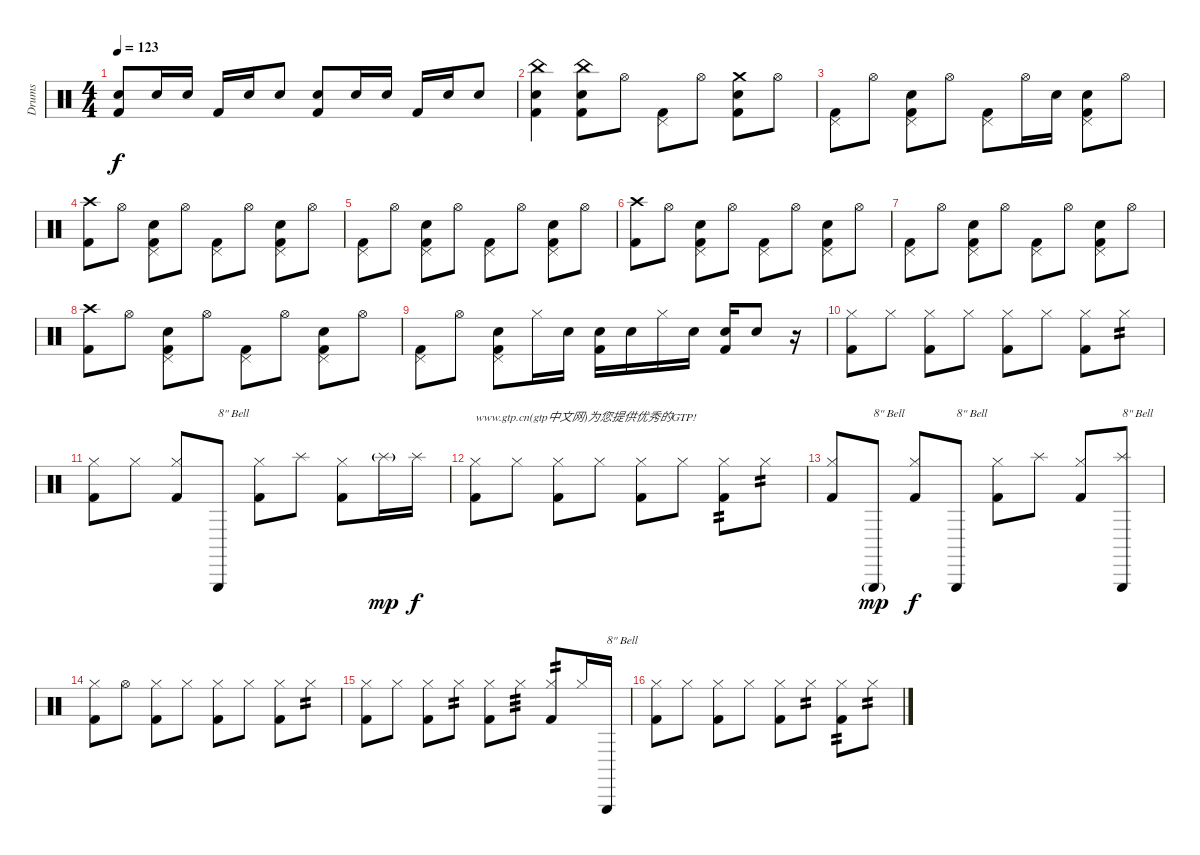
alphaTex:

\track ("Drums" "Drums") {instrument percussion}
\staff {score}
\articulation defaults
\ts (4 4)
\tempo 123
\clef neutral
\ks c
("Snare (hit) 2" "Kick (hit) 2").8{dy f} "Snare (hit) 2".16 "Snare (hit) 2".16 "Kick (hit) 2".16 "Snare (hit) 2".16 "Snare (hit) 2".8 ("Snare (hit) 2" "Kick (hit) 2").8 "Snare (hit) 2".16 "Snare (hit) 2".16 "Kick (hit) 2".16 "Snare (hit) 2".16 "Snare (hit) 2".8 |
("China (hit)" "Snare (hit) 2" "Kick (hit) 2").4 ("China (hit)" "Snare (hit) 2" "Kick (hit) 2").8 "Hi-Hat (open)".8 ("Pedal Hi-Hat (hit)" "Kick (hit) 2").8 "Hi-Hat (open)".8 ("Crash medium (hit)" "Snare (hit) 2" "Kick (hit) 2").8 "Hi-Hat (open)".8 |
("Pedal Hi-Hat (hit)" "Kick (hit) 2").8 "Hi-Hat (open)".8 ("Pedal Hi-Hat (hit)" "Snare (hit) 2" "Kick (hit) 2").8 "Hi-Hat (open)".8 ("Pedal Hi-Hat (hit)" "Kick (hit) 2").8 "Hi-Hat (open)".16 "Snare (hit) 2".16 ("Pedal Hi-Hat (hit)" "Snare (hit) 2" "Kick (hit) 2").8 "Hi-Hat (open)".8 |
("Crash high (hit)" "Kick (hit) 2").8 "Hi-Hat (open)".8 ("Pedal Hi-Hat (hit)" "Snare (hit) 2" "Kick (hit) 2").8 "Hi-Hat (open)".8 ("Pedal Hi-Hat (hit)" "Kick (hit) 2").8 "Hi-Hat (open)".8 ("Pedal Hi-Hat (hit)" "Snare (hit) 2" "Kick (hit) 2").8 "Hi-Hat (open)".8 |
("Pedal Hi-Hat (hit)" "Kick (hit) 2").8 "Hi-Hat (open)".8 ("Pedal Hi-Hat (hit)" "Snare (hit) 2" "Kick (hit) 2").8 "Hi-Hat (open)".8 ("Pedal Hi-Hat (hit)" "Kick (hit) 2").8 "Hi-Hat (open)".8 ("Pedal Hi-Hat (hit)" "Snare (hit) 2" "Kick (hit) 2").8 "Hi-Hat (open)".8 |
("Crash high (hit)" "Kick (hit) 2").8 "Hi-Hat (open)".8 ("Pedal Hi-Hat (hit)" "Snare (hit) 2" "Kick (hit) 2").8 "Hi-Hat (open)".8 ("Pedal Hi-Hat (hit)" "Kick (hit) 2").8 "Hi-Hat (open)".8 ("Pedal Hi-Hat (hit)" "Snare (hit) 2" "Kick (hit) 2").8 "Hi-Hat (open)".8 |
("Pedal Hi-Hat (hit)" "Kick (hit) 2").8 "Hi-Hat (open)".8 ("Pedal Hi-Hat (hit)" "Snare (hit) 2" "Kick (hit) 2").8 "Hi-Hat (open)".8 ("Pedal Hi-Hat (hit)" "Kick (hit) 2").8 "Hi-Hat (open)".8 ("Pedal Hi-Hat (hit)" "Snare (hit) 2" "Kick (hit) 2").8 "Hi-Hat (open)".8 |
("Crash high (hit)" "Kick (hit) 2").8 "Hi-Hat (open)".8 ("Pedal Hi-Hat (hit)" "Snare (hit) 2" "Kick (hit) 2").8 "Hi-Hat (open)".8 ("Pedal Hi-Hat (hit)" "Kick (hit) 2").8 "Hi-Hat (open)".8 ("Pedal Hi-Hat (hit)" "Snare (hit) 2" "Kick (hit) 2").8 "Hi-Hat (open)".8 |
("Pedal Hi-Hat (hit)" "Kick (hit) 2").8 "Hi-Hat (open)".8 ("Pedal Hi-Hat (hit)" "Snare (hit) 2" "Kick (hit) 2").8 "Hi-Hat (closed)".16 "Snare (hit) 2".16 ("Snare (hit) 2" "Kick (hit) 2").16 "Snare (hit) 2".16 "Hi-Hat (closed)".16 "Snare (hit) 2".16 ("Snare (hit) 2" "Kick (hit) 2").16 "Snare (hit) 2".8 r.16 |
("Hi-Hat (closed)" "Kick (hit) 2").8 "Hi-Hat (closed)".8 ("Hi-Hat (closed)" "Kick (hit) 2").8 "Hi-Hat (closed)".8 ("Hi-Hat (closed)" "Kick (hit) 2").8 "Hi-Hat (closed)".8 ("Hi-Hat (closed)" "Kick (hit) 2").8 "Hi-Hat (closed)".8{tp 2} |
("Hi-Hat (closed)" "Kick (hit) 2").8 "Hi-Hat (closed)".8 ("Hi-Hat (closed)" "Kick (hit) 2").8 "Triangle (hit)".8{txt "8\" Bell"} ("Hi-Hat (closed)" "Kick (hit) 2").8 "Splash (hit)".8 ("Hi-Hat (closed)" "Kick (hit) 2").8 "Splash (hit)"{g}.16{dy mp} "Splash (hit)".16{dy f} |
("Hi-Hat (closed)" "Kick (hit) 2").8{txt "www.gtp.cn(gtp中文网)为您提供优秀的GTP!"} "Hi-Hat (closed)".8 ("Hi-Hat (closed)" "Kick (hit) 2").8 "Hi-Hat (closed)".8 ("Hi-Hat (closed)" "Kick (hit) 2").8 "Hi-Hat (closed)".8 ("Hi-Hat (closed)" "Kick (hit) 2").8{tp 2} "Hi-Hat (closed)".8{tp 2} |
("Hi-Hat (closed)" "Kick (hit) 2").8 "Triangle (hit)"{g}.8{txt "8\" Bell" dy mp} ("Hi-Hat (closed)" "Kick (hit) 2").8{dy f} "Triangle (hit)".8{txt "8\" Bell"} ("Hi-Hat (closed)" "Kick (hit) 2").8 "Splash (hit)".8 ("Hi-Hat (closed)" "Kick (hit) 2").8 ("Splash (hit)" "Triangle (hit)").8{txt "8\" Bell"} |
("Hi-Hat (closed)" "Kick (hit) 2").8 "Hi-Hat (open)".8 ("Hi-Hat (closed)" "Kick (hit) 2").8 "Hi-Hat (closed)".8 ("Hi-Hat (closed)" "Kick (hit) 2").8 "Hi-Hat (closed)".8 ("Hi-Hat (closed)" "Kick (hit) 2").8 "Hi-Hat (closed)".8{tp 2} |
("Hi-Hat (closed)" "Kick (hit) 2").8 "Hi-Hat (closed)".8 ("Hi-Hat (closed)" "Kick (hit) 2").8 "Hi-Hat (closed)".8{tp 2} ("Hi-Hat (closed)" "Kick (hit) 2").8 "Hi-Hat (closed)".8{tp 3} ("Hi-Hat (closed)" "Kick (hit) 2").8{tp 2} "Hi-Hat (closed)".16 "Triangle (hit)".16{txt "8\" Bell"} |
("Hi-Hat (closed)" "Kick (hit) 2").8 "Hi-Hat (closed)".8 ("Hi-Hat (closed)" "Kick (hit) 2").8 "Hi-Hat (closed)".8 ("Hi-Hat (closed)" "Kick (hit) 2").8 "Hi-Hat (closed)".8{tp 2} ("Hi-Hat (closed)" "Kick (hit) 2").8{tp 2} "Hi-Hat (closed)".8{tp 2}
